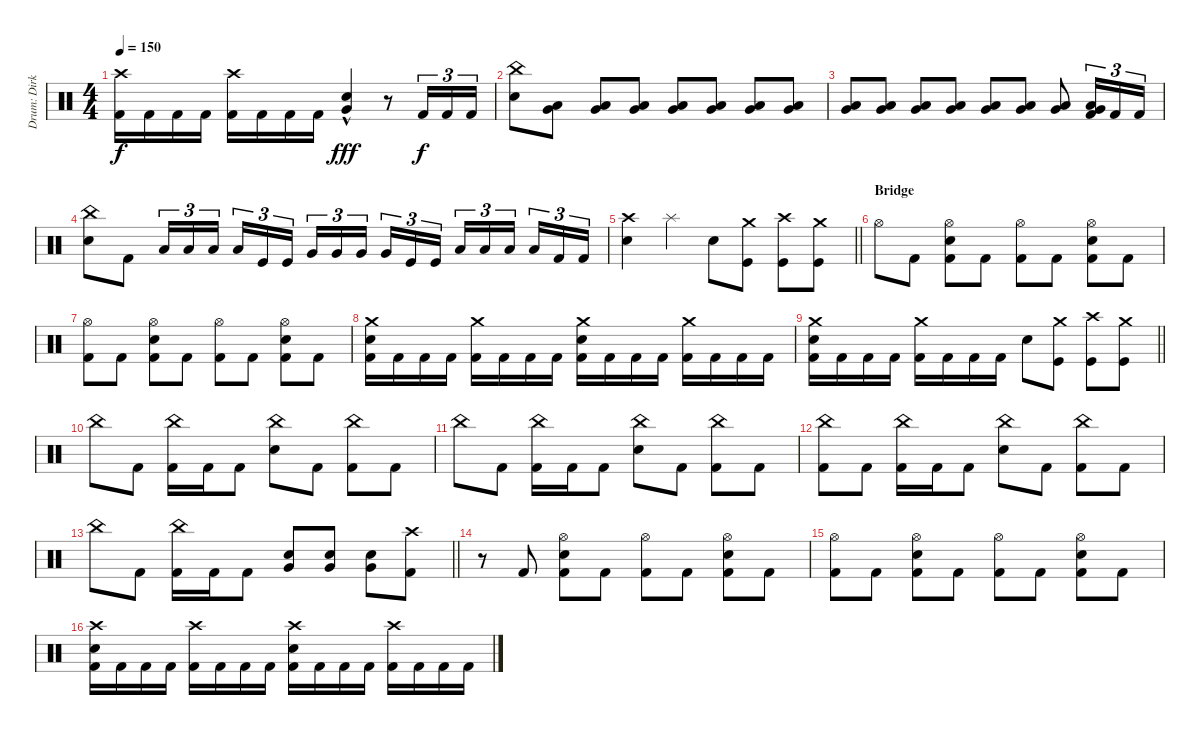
\track ("Drum: Dirk" "Drum: Dirk") {instrument percussion}
\staff {score}
\articulation defaults
\ts (4 4)
\tempo 150
\clef neutral
\ks c
("Crash high (hit)" "Kick (hit) 2").16{dy f} "Kick (hit) 2".16 "Kick (hit) 2".16 "Kick (hit) 2".16 ("Crash high (hit)" "Kick (hit) 2").16 "Kick (hit) 2".16 "Kick (hit) 2".16 "Kick (hit) 2".16 ("Electric Snare (hit)" "Very Low Tom (hit)"{hac}).4{dy fff} r.8 "Kick (hit) 2".16{tu (3 2) dy f} "Kick (hit) 2".16{tu (3 2)} "Kick (hit) 2".16{tu (3 2)} |
("China (hit)" "Electric Snare (hit)").8 ("Low Tom (hit)" "Very Low Tom (hit)").8 ("Low Tom (hit)" "Very Low Tom (hit)").8 ("Low Tom (hit)" "Very Low Tom (hit)").8 ("Low Tom (hit)" "Very Low Tom (hit)").8 ("Low Tom (hit)" "Very Low Tom (hit)").8 ("Low Tom (hit)" "Very Low Tom (hit)").8 ("Low Tom (hit)" "Very Low Tom (hit)").8 |
("Low Tom (hit)" "Very Low Tom (hit)").8 ("Low Tom (hit)" "Very Low Tom (hit)").8 ("Low Tom (hit)" "Very Low Tom (hit)").8 ("Low Tom (hit)" "Very Low Tom (hit)").8 ("Low Tom (hit)" "Very Low Tom (hit)").8 ("Low Tom (hit)" "Very Low Tom (hit)").8 ("Low Tom (hit)" "Very Low Tom (hit)").8 ("Low Tom (hit)" "Very Low Tom (hit)" "Kick (hit) 2").16{tu (3 2)} "Kick (hit) 2".16{tu (3 2)} "Kick (hit) 2".16{tu (3 2)} |
("China (hit)" "Electric Snare (hit)").8 "Kick (hit) 2".8 "Low Tom (hit)".16{tu (3 2)} "Low Tom (hit)".16{tu (3 2)} "Low Tom (hit)".16{tu (3 2) beam splitsecondary} "Low Tom (hit)".16{tu (3 2)} "Kick (hit)".16{tu (3 2)} "Kick (hit)".16{tu (3 2)} "Very Low Tom (hit)".16{tu (3 2)} "Very Low Tom (hit)".16{tu (3 2)} "Very Low Tom (hit)".16{tu (3 2) beam splitsecondary} "Very Low Tom (hit)".16{tu (3 2)} "Kick (hit)".16{tu (3 2)} "Kick (hit)".16{tu (3 2)} "Low Floor Tom (hit)".16{tu (3 2)} "Low Floor Tom (hit)".16{tu (3 2)} "Low Floor Tom (hit)".16{tu (3 2) beam splitsecondary} "Low Floor Tom (hit)".16{tu (3 2)} "Kick (hit) 2".16{tu (3 2)} "Kick (hit) 2".16{tu (3 2)} |
\barLineRight lightlight
("Crash high (hit)" "Electric Snare (hit)").4 "Splash (hit)".4 "Electric Snare (hit)".8 ("Crash medium (hit)" "Kick (hit)").8 ("Crash high (hit)" "Kick (hit)").8 ("Crash medium (hit)" "Kick (hit)").8 |
\section ("" "Bridge")
"Hi-Hat (open)".8 "Kick (hit) 2".8 ("Hi-Hat (open)" "Electric Snare (hit)" "Kick (hit) 2").8 "Kick (hit) 2".8 ("Hi-Hat (open)" "Kick (hit) 2").8 "Kick (hit) 2".8 ("Hi-Hat (open)" "Electric Snare (hit)" "Kick (hit) 2").8 "Kick (hit) 2".8 |
("Hi-Hat (open)" "Kick (hit) 2").8 "Kick (hit) 2".8 ("Hi-Hat (open)" "Electric Snare (hit)" "Kick (hit) 2").8 "Kick (hit) 2".8 ("Hi-Hat (open)" "Kick (hit) 2").8 "Kick (hit) 2".8 ("Hi-Hat (open)" "Electric Snare (hit)" "Kick (hit) 2").8 "Kick (hit) 2".8 |
("Crash medium (hit)" "Electric Snare (hit)" "Kick (hit) 2").16 "Kick (hit) 2".16 "Kick (hit) 2".16 "Kick (hit) 2".16 ("Crash medium (hit)" "Kick (hit) 2").16 "Kick (hit) 2".16 "Kick (hit) 2".16 "Kick (hit) 2".16 ("Crash medium (hit)" "Electric Snare (hit)" "Kick (hit) 2").16 "Kick (hit) 2".16 "Kick (hit) 2".16 "Kick (hit) 2".16 ("Crash medium (hit)" "Kick (hit) 2").16 "Kick (hit) 2".16 "Kick (hit) 2".16 "Kick (hit) 2".16 |
\barLineRight lightlight
("Crash medium (hit)" "Electric Snare (hit)" "Kick (hit) 2").16 "Kick (hit) 2".16 "Kick (hit) 2".16 "Kick (hit) 2".16 ("Crash medium (hit)" "Kick (hit) 2").16 "Kick (hit) 2".16 "Kick (hit) 2".16 "Kick (hit) 2".16 "Electric Snare (hit)".8 ("Crash medium (hit)" "Kick (hit)").8 ("Crash high (hit)" "Kick (hit)").8 ("Crash medium (hit)" "Kick (hit)").8 |
\section ("" "")
"China (hit)".8 "Kick (hit) 2".8 ("China (hit)" "Kick (hit) 2").16 "Kick (hit) 2".16 "Kick (hit) 2".8 ("China (hit)" "Electric Snare (hit)").8 "Kick (hit) 2".8 ("China (hit)" "Kick (hit) 2").8 "Kick (hit) 2".8 |
"China (hit)".8 "Kick (hit) 2".8 ("China (hit)" "Kick (hit) 2").16 "Kick (hit) 2".16 "Kick (hit) 2".8 ("China (hit)" "Electric Snare (hit)").8 "Kick (hit) 2".8 ("China (hit)" "Kick (hit) 2").8 "Kick (hit) 2".8 |
("China (hit)" "Kick (hit) 2").8 "Kick (hit) 2".8 ("China (hit)" "Kick (hit) 2").16 "Kick (hit) 2".16 "Kick (hit) 2".8 ("China (hit)" "Electric Snare (hit)").8 "Kick (hit) 2".8 ("China (hit)" "Kick (hit) 2").8 "Kick (hit) 2".8 |
\barLineRight lightlight "China (hit)".8 "Kick (hit) 2".8
("China (hit)" "Kick (hit) 2").16 "Kick (hit) 2".16 "Kick (hit) 2".8 ("Electric Snare (hit)" "Very Low Tom (hit)").8 ("Electric Snare (hit)" "Very Low Tom (hit)").8 ("Electric Snare (hit)" "Very Low Tom (hit)").8 ("Crash high (hit)" "Kick (hit) 2").8 |
\section ("" "")
r.8 "Kick (hit) 2".8 ("Hi-Hat (open)" "Electric Snare (hit)" "Kick (hit) 2").8 "Kick (hit) 2".8 ("Hi-Hat (open)" "Kick (hit) 2").8 "Kick (hit) 2".8 ("Hi-Hat (open)" "Electric Snare (hit)" "Kick (hit) 2").8 "Kick (hit) 2".8 |
("Hi-Hat (open)" "Kick (hit) 2").8 "Kick (hit) 2".8 ("Hi-Hat (open)" "Electric Snare (hit)" "Kick (hit) 2").8 "Kick (hit) 2".8 ("Hi-Hat (open)" "Kick (hit) 2").8 "Kick (hit) 2".8 ("Hi-Hat (open)" "Electric Snare (hit)" "Kick (hit) 2").8 "Kick (hit) 2".8 |
("Crash high (hit)" "Electric Snare (hit)" "Kick (hit) 2").16 "Kick (hit) 2".16 "Kick (hit) 2".16 "Kick (hit) 2".16 ("Crash high (hit)" "Kick (hit) 2").16 "Kick (hit) 2".16 "Kick (hit) 2".16 "Kick (hit) 2".16 ("Crash high (hit)" "Electric Snare (hit)" "Kick (hit) 2").16 "Kick (hit) 2".16 "Kick (hit) 2".16 "Kick (hit) 2".16 ("Crash high (hit)" "Kick (hit) 2").16 "Kick (hit) 2".16 "Kick (hit) 2".16 "Kick (hit) 2".16
